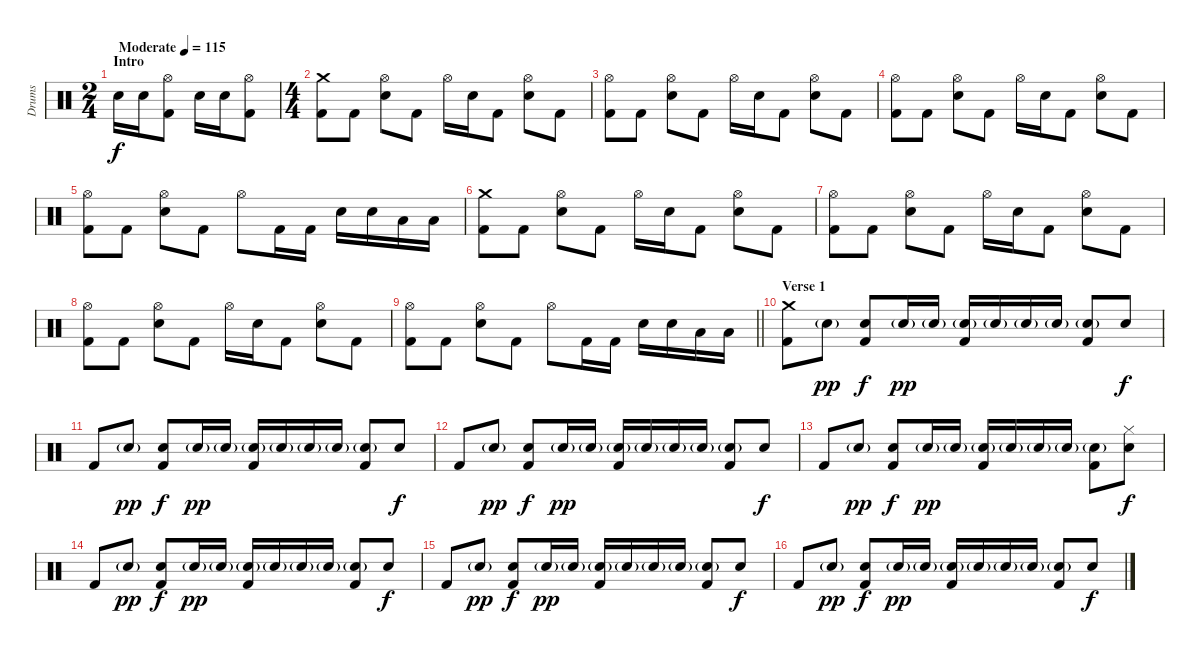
\track ("Drums" "Drums") {instrument percussion}
\staff {score}
\articulation defaults
\ts (2 4)
\section ("" "Intro")
\tempo (115 "Moderate")
\clef neutral
\ks c "Electric Snare (hit)".16{dy f} "Electric Snare (hit)".16
("Hi-Hat (open)" "Kick (hit) 2").8 "Electric Snare (hit)".16 "Electric Snare (hit)".16 ("Hi-Hat (open)" "Kick (hit) 2").8 |
\ts (4 4)
("Crash medium (hit)" "Kick (hit) 2").8 "Kick (hit) 2".8 ("Hi-Hat (open)" "Electric Snare (hit)").8 "Kick (hit) 2".8 "Hi-Hat (open)".16 "Electric Snare (hit)".16 "Kick (hit) 2".8 ("Hi-Hat (open)" "Electric Snare (hit)").8 "Kick (hit) 2".8 |
("Hi-Hat (open)" "Kick (hit) 2").8 "Kick (hit) 2".8 ("Hi-Hat (open)" "Electric Snare (hit)").8 "Kick (hit) 2".8 "Hi-Hat (open)".16 "Electric Snare (hit)".16 "Kick (hit) 2".8 ("Hi-Hat (open)" "Electric Snare (hit)").8 "Kick (hit) 2".8 |
("Hi-Hat (open)" "Kick (hit) 2").8 "Kick (hit) 2".8 ("Hi-Hat (open)" "Electric Snare (hit)").8 "Kick (hit) 2".8 "Hi-Hat (open)".16 "Electric Snare (hit)".16 "Kick (hit) 2".8 ("Hi-Hat (open)" "Electric Snare (hit)").8 "Kick (hit) 2".8 |
("Hi-Hat (open)" "Kick (hit) 2").8 "Kick (hit) 2".8 ("Hi-Hat (open)" "Electric Snare (hit)").8 "Kick (hit) 2".8 "Hi-Hat (open)".8 "Kick (hit) 2".16 "Kick (hit) 2".16 "Electric Snare (hit)".16 "Electric Snare (hit)".16 "Low Tom (hit)".16 "Low Tom (hit)".16 |
("Crash medium (hit)" "Kick (hit) 2").8 "Kick (hit) 2".8 ("Hi-Hat (open)" "Electric Snare (hit)").8 "Kick (hit) 2".8 "Hi-Hat (open)".16 "Electric Snare (hit)".16 "Kick (hit) 2".8 ("Hi-Hat (open)" "Electric Snare (hit)").8 "Kick (hit) 2".8 |
("Hi-Hat (open)" "Kick (hit) 2").8 "Kick (hit) 2".8 ("Hi-Hat (open)" "Electric Snare (hit)").8 "Kick (hit) 2".8 "Hi-Hat (open)".16 "Electric Snare (hit)".16 "Kick (hit) 2".8 ("Hi-Hat (open)" "Electric Snare (hit)").8 "Kick (hit) 2".8 |
("Hi-Hat (open)" "Kick (hit) 2").8 "Kick (hit) 2".8 ("Hi-Hat (open)" "Electric Snare (hit)").8 "Kick (hit) 2".8 "Hi-Hat (open)".16 "Electric Snare (hit)".16 "Kick (hit) 2".8 ("Hi-Hat (open)" "Electric Snare (hit)").8 "Kick (hit) 2".8 |
\barLineRight lightlight
("Hi-Hat (open)" "Kick (hit) 2").8 "Kick (hit) 2".8 ("Hi-Hat (open)" "Electric Snare (hit)").8 "Kick (hit) 2".8 "Hi-Hat (open)".8 "Kick (hit) 2".16 "Kick (hit) 2".16 "Electric Snare (hit)".16 "Electric Snare (hit)".16 "Low Tom (hit)".16 "Low Tom (hit)".16 |
\section ("" "Verse 1")
("Crash medium (hit)" "Kick (hit) 2").8 "Electric Snare (hit)"{g}.8{dy pp} ("Electric Snare (hit)" "Kick (hit) 2").8{dy f} "Electric Snare (hit)"{g}.16{dy pp} "Electric Snare (hit)"{g}.16 ("Electric Snare (hit)"{g} "Kick (hit) 2").16 "Electric Snare (hit)"{g}.16 "Electric Snare (hit)"{g}.16 "Electric Snare (hit)"{g}.16 ("Electric Snare (hit)"{g} "Kick (hit) 2").8 "Electric Snare (hit)".8{dy f} |
"Kick (hit) 2".8 "Electric Snare (hit)"{g}.8{dy pp} ("Electric Snare (hit)" "Kick (hit) 2").8{dy f} "Electric Snare (hit)"{g}.16{dy pp} "Electric Snare (hit)"{g}.16 ("Electric Snare (hit)"{g} "Kick (hit) 2").16 "Electric Snare (hit)"{g}.16 "Electric Snare (hit)"{g}.16 "Electric Snare (hit)"{g}.16 ("Electric Snare (hit)"{g} "Kick (hit) 2").8 "Electric Snare (hit)".8{dy f} |
"Kick (hit) 2".8 "Electric Snare (hit)"{g}.8{dy pp} ("Electric Snare (hit)" "Kick (hit) 2").8{dy f} "Electric Snare (hit)"{g}.16{dy pp} "Electric Snare (hit)"{g}.16 ("Electric Snare (hit)"{g} "Kick (hit) 2").16 "Electric Snare (hit)"{g}.16 "Electric Snare (hit)"{g}.16 "Electric Snare (hit)"{g}.16 ("Electric Snare (hit)"{g} "Kick (hit) 2").8 "Electric Snare (hit)".8{dy f} |
"Kick (hit) 2".8 "Electric Snare (hit)"{g}.8{dy pp} ("Electric Snare (hit)" "Kick (hit) 2").8{dy f} "Electric Snare (hit)"{g}.16{dy pp} "Electric Snare (hit)"{g}.16 ("Electric Snare (hit)"{g} "Kick (hit) 2").16 "Electric Snare (hit)"{g}.16 "Electric Snare (hit)"{g}.16 "Electric Snare (hit)"{g}.16 ("Electric Snare (hit)"{g} "Kick (hit) 2").8 ("Hi-Hat (closed)" "Electric Snare (hit)").8{dy f} |
"Kick (hit) 2".8 "Electric Snare (hit)"{g}.8{dy pp} ("Electric Snare (hit)" "Kick (hit) 2").8{dy f} "Electric Snare (hit)"{g}.16{dy pp} "Electric Snare (hit)"{g}.16 ("Electric Snare (hit)"{g} "Kick (hit) 2").16 "Electric Snare (hit)"{g}.16 "Electric Snare (hit)"{g}.16 "Electric Snare (hit)"{g}.16 ("Electric Snare (hit)"{g} "Kick (hit) 2").8 "Electric Snare (hit)".8{dy f} |
"Kick (hit) 2".8 "Electric Snare (hit)"{g}.8{dy pp} ("Electric Snare (hit)" "Kick (hit) 2").8{dy f} "Electric Snare (hit)"{g}.16{dy pp} "Electric Snare (hit)"{g}.16 ("Electric Snare (hit)"{g} "Kick (hit) 2").16 "Electric Snare (hit)"{g}.16 "Electric Snare (hit)"{g}.16 "Electric Snare (hit)"{g}.16 ("Electric Snare (hit)"{g} "Kick (hit) 2").8 "Electric Snare (hit)".8{dy f} |
"Kick (hit) 2".8 "Electric Snare (hit)"{g}.8{dy pp} ("Electric Snare (hit)" "Kick (hit) 2").8{dy f} "Electric Snare (hit)"{g}.16{dy pp} "Electric Snare (hit)"{g}.16 ("Electric Snare (hit)"{g} "Kick (hit) 2").16 "Electric Snare (hit)"{g}.16 "Electric Snare (hit)"{g}.16 "Electric Snare (hit)"{g}.16 ("Electric Snare (hit)"{g} "Kick (hit) 2").8 "Electric Snare (hit)".8{dy f}
